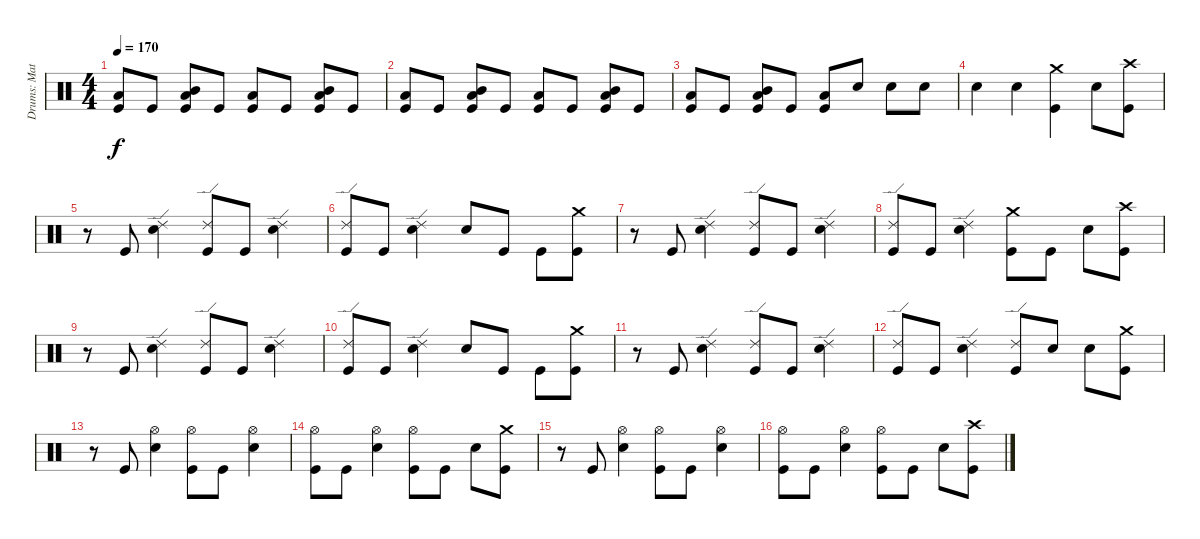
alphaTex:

\track ("Drums: Matt" "Drums: Mat") {instrument percussion}
\staff {score}
\articulation defaults
\ts (4 4)
\tempo 170
\clef neutral
\ks c
("Low Floor Tom (hit)" "Kick (hit)").8{dy f} "Kick (hit)".8 ("Kick (hit)" "Mid Tom (hit)" "Low Floor Tom (hit)").8 "Kick (hit)".8 ("Low Floor Tom (hit)" "Kick (hit)").8 "Kick (hit)".8 ("Mid Tom (hit)" "Kick (hit)" "Low Floor Tom (hit)").8 "Kick (hit)".8 |
("Kick (hit)" "Low Floor Tom (hit)").8 "Kick (hit)".8 ("Mid Tom (hit)" "Low Floor Tom (hit)" "Kick (hit)").8 "Kick (hit)".8 ("Kick (hit)" "Low Floor Tom (hit)").8 "Kick (hit)".8 ("Kick (hit)" "Low Floor Tom (hit)" "Mid Tom (hit)").8 "Kick (hit)".8 |
("Low Floor Tom (hit)" "Kick (hit)").8 "Kick (hit)".8 ("Mid Tom (hit)" "Low Floor Tom (hit)" "Kick (hit)").8 "Kick (hit)".8 ("Low Floor Tom (hit)" "Kick (hit)").8 "Snare (hit) 2".8 "Snare (hit) 2".8 "Snare (hit) 2".8 |
"Snare (hit) 2".4 "Snare (hit) 2".4 ("Kick (hit)" "Crash medium (hit)").4 "Snare (hit) 2".8 ("Crash high (hit)" "Kick (hit)").8 |
r.8 "Kick (hit)".8 ("Ride (edge) 2" "Snare (hit) 2").4 ("Kick (hit)" "Ride (edge) 2").8 "Kick (hit)".8 ("Ride (edge) 2" "Snare (hit) 2").4 |
("Kick (hit)" "Ride (edge) 2").8 "Kick (hit)".8 ("Ride (edge) 2" "Snare (hit) 2").4 "Snare (hit) 2".8 "Kick (hit)".8 "Kick (hit)".8 ("Crash medium (hit)" "Kick (hit)").8 |
r.8 "Kick (hit)".8 ("Ride (edge) 2" "Snare (hit) 2").4 ("Ride (edge) 2" "Kick (hit)").8 "Kick (hit)".8 ("Ride (edge) 2" "Snare (hit) 2").4 |
("Kick (hit)" "Ride (edge) 2").8 "Kick (hit)".8 ("Snare (hit) 2" "Ride (edge) 2").4 ("Crash medium (hit)" "Kick (hit)").8 "Kick (hit)".8 "Snare (hit) 2".8 ("Crash high (hit)" "Kick (hit)").8 |
r.8 "Kick (hit)".8 ("Snare (hit) 2" "Ride (edge) 2").4 ("Ride (edge) 2" "Kick (hit)").8 "Kick (hit)".8 ("Ride (edge) 2" "Snare (hit) 2").4 |
("Kick (hit)" "Ride (edge) 2").8 "Kick (hit)".8 ("Snare (hit) 2" "Ride (edge) 2").4 "Snare (hit) 2".8 "Kick (hit)".8 "Kick (hit)".8 ("Crash medium (hit)" "Kick (hit)").8 |
r.8 "Kick (hit)".8 ("Snare (hit) 2" "Ride (edge) 2").4 ("Ride (edge) 2" "Kick (hit)").8 "Kick (hit)".8 ("Ride (edge) 2" "Snare (hit) 2").4 |
("Kick (hit)" "Ride (edge) 2").8 "Kick (hit)".8 ("Snare (hit) 2" "Ride (edge) 2").4 ("Ride (edge) 2" "Kick (hit)").8 "Snare (hit) 2".8 "Snare (hit) 2".8 ("Kick (hit)" "Crash medium (hit)").8 |
r.8 "Kick (hit)".8 ("Snare (hit) 2" "Hi-Hat (open)").4 ("Hi-Hat (open)" "Kick (hit)").8 "Kick (hit)".8 ("Snare (hit) 2" "Hi-Hat (open)").4 |
("Kick (hit)" "Hi-Hat (open)").8 "Kick (hit)".8 ("Hi-Hat (open)" "Snare (hit) 2").4 ("Hi-Hat (open)" "Kick (hit)").8 "Kick (hit)".8 "Snare (hit) 2".8 ("Kick (hit)" "Crash medium (hit)").8 |
r.8 "Kick (hit)".8 ("Snare (hit) 2" "Hi-Hat (open)").4 ("Hi-Hat (open)" "Kick (hit)").8 "Kick (hit)".8 ("Snare (hit) 2" "Hi-Hat (open)").4 |
("Hi-Hat (open)" "Kick (hit)").8 "Kick (hit)".8 ("Hi-Hat (open)" "Snare (hit) 2").4 ("Kick (hit)" "Hi-Hat (open)").8 "Kick (hit)".8 "Snare (hit) 2".8 ("Kick (hit)" "Crash high (hit)").8
